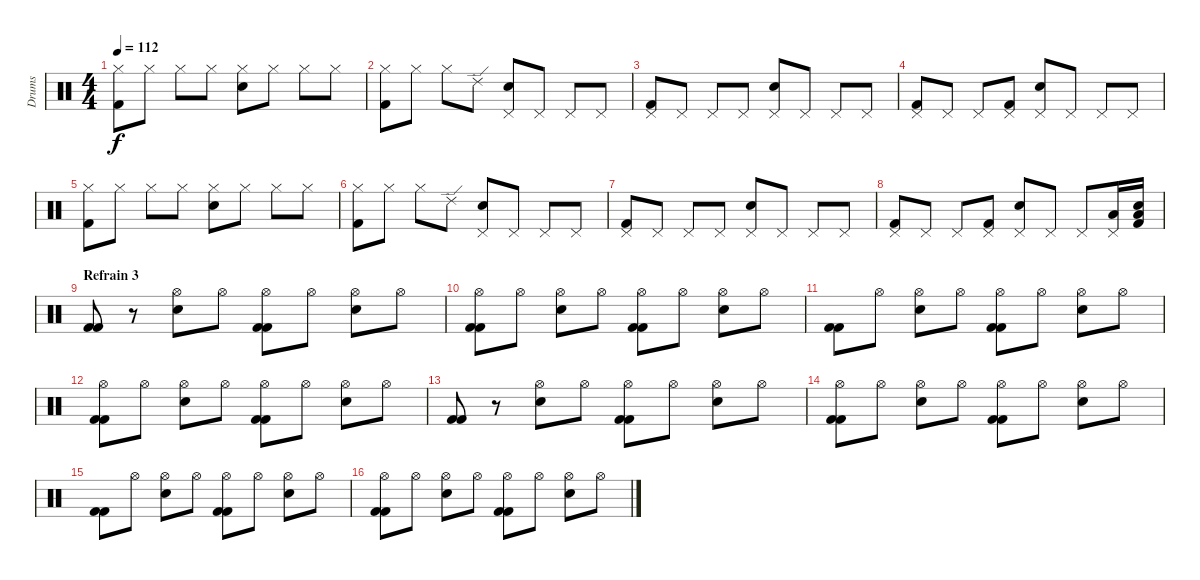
\track ("Drums" "Drums") {instrument percussion}
\staff {score}
\articulation defaults
\ts (4 4)
\tempo 112
\clef neutral
\ks c
("Hi-Hat (closed)" "Kick (hit) 2").8{dy f} "Hi-Hat (closed)".8 "Hi-Hat (closed)".8 "Hi-Hat (closed)".8 ("Hi-Hat (closed)" "Electric Snare (hit)").8 "Hi-Hat (closed)".8 "Hi-Hat (closed)".8 "Hi-Hat (closed)".8 |
("Hi-Hat (closed)" "Kick (hit) 2").8 "Hi-Hat (closed)".8 "Hi-Hat (closed)".8 "Ride (edge) 2".8 ("Pedal Hi-Hat (hit)" "Electric Snare (hit)").8 "Pedal Hi-Hat (hit)".8 "Pedal Hi-Hat (hit)".8 "Pedal Hi-Hat (hit)".8 |
("Pedal Hi-Hat (hit)" "Kick (hit) 2").8 "Pedal Hi-Hat (hit)".8 "Pedal Hi-Hat (hit)".8 "Pedal Hi-Hat (hit)".8 ("Pedal Hi-Hat (hit)" "Electric Snare (hit)").8 "Pedal Hi-Hat (hit)".8 "Pedal Hi-Hat (hit)".8 "Pedal Hi-Hat (hit)".8 |
("Pedal Hi-Hat (hit)" "Kick (hit) 2").8 "Pedal Hi-Hat (hit)".8 "Pedal Hi-Hat (hit)".8 ("Pedal Hi-Hat (hit)" "Kick (hit) 2").8 ("Pedal Hi-Hat (hit)" "Electric Snare (hit)").8 "Pedal Hi-Hat (hit)".8 "Pedal Hi-Hat (hit)".8 "Pedal Hi-Hat (hit)".8 |
("Hi-Hat (closed)" "Kick (hit) 2").8 "Hi-Hat (closed)".8 "Hi-Hat (closed)".8 "Hi-Hat (closed)".8 ("Hi-Hat (closed)" "Electric Snare (hit)").8 "Hi-Hat (closed)".8 "Hi-Hat (closed)".8 "Hi-Hat (closed)".8 |
("Hi-Hat (closed)" "Kick (hit) 2").8 "Hi-Hat (closed)".8 "Hi-Hat (closed)".8 "Ride (edge) 2".8 ("Pedal Hi-Hat (hit)" "Electric Snare (hit)").8 "Pedal Hi-Hat (hit)".8 "Pedal Hi-Hat (hit)".8 "Pedal Hi-Hat (hit)".8 |
("Pedal Hi-Hat (hit)" "Kick (hit) 2").8 "Pedal Hi-Hat (hit)".8 "Pedal Hi-Hat (hit)".8 "Pedal Hi-Hat (hit)".8 ("Pedal Hi-Hat (hit)" "Electric Snare (hit)").8 "Pedal Hi-Hat (hit)".8 "Pedal Hi-Hat (hit)".8 "Pedal Hi-Hat (hit)".8 |
("Pedal Hi-Hat (hit)" "Kick (hit) 2").8 "Pedal Hi-Hat (hit)".8 "Pedal Hi-Hat (hit)".8 ("Pedal Hi-Hat (hit)" "Kick (hit) 2").8 ("Pedal Hi-Hat (hit)" "Electric Snare (hit)").8 "Pedal Hi-Hat (hit)".8 "Pedal Hi-Hat (hit)".8 ("Pedal Hi-Hat (hit)" "Low Floor Tom (hit)").16 ("Electric Snare (hit)" "Low Floor Tom (hit)" "Kick (hit) 2").16 |
\section ("" "Refrain 3")
("Kick (hit) 2" "Kick (hit) 2").8 r.8 ("Hi-Hat (open)" "Electric Snare (hit)").8 "Hi-Hat (open)".8 ("Hi-Hat (open)" "Kick (hit) 2" "Kick (hit) 2").8 "Hi-Hat (open)".8 ("Hi-Hat (open)" "Electric Snare (hit)").8 "Hi-Hat (open)".8 |
("Hi-Hat (open)" "Kick (hit) 2" "Kick (hit) 2").8 "Hi-Hat (open)".8 ("Hi-Hat (open)" "Electric Snare (hit)").8 "Hi-Hat (open)".8 ("Hi-Hat (open)" "Kick (hit) 2" "Kick (hit) 2").8 "Hi-Hat (open)".8 ("Hi-Hat (open)" "Electric Snare (hit)").8 "Hi-Hat (open)".8 |
("Kick (hit) 2" "Kick (hit) 2").8 "Hi-Hat (open)".8 ("Hi-Hat (open)" "Electric Snare (hit)").8 "Hi-Hat (open)".8 ("Hi-Hat (open)" "Kick (hit) 2" "Kick (hit) 2").8 "Hi-Hat (open)".8 ("Hi-Hat (open)" "Electric Snare (hit)").8 "Hi-Hat (open)".8 |
("Hi-Hat (open)" "Kick (hit) 2" "Kick (hit) 2").8 "Hi-Hat (open)".8 ("Hi-Hat (open)" "Electric Snare (hit)").8 "Hi-Hat (open)".8 ("Hi-Hat (open)" "Kick (hit) 2" "Kick (hit) 2").8 "Hi-Hat (open)".8 ("Hi-Hat (open)" "Electric Snare (hit)").8 "Hi-Hat (open)".8 |
("Kick (hit) 2" "Kick (hit) 2").8 r.8 ("Hi-Hat (open)" "Electric Snare (hit)").8 "Hi-Hat (open)".8 ("Hi-Hat (open)" "Kick (hit) 2" "Kick (hit) 2").8 "Hi-Hat (open)".8 ("Hi-Hat (open)" "Electric Snare (hit)").8 "Hi-Hat (open)".8 |
("Hi-Hat (open)" "Kick (hit) 2" "Kick (hit) 2").8 "Hi-Hat (open)".8 ("Hi-Hat (open)" "Electric Snare (hit)").8 "Hi-Hat (open)".8 ("Hi-Hat (open)" "Kick (hit) 2" "Kick (hit) 2").8 "Hi-Hat (open)".8 ("Hi-Hat (open)" "Electric Snare (hit)").8 "Hi-Hat (open)".8 |
("Kick (hit) 2" "Kick (hit) 2").8 "Hi-Hat (open)".8 ("Hi-Hat (open)" "Electric Snare (hit)").8 "Hi-Hat (open)".8 ("Hi-Hat (open)" "Kick (hit) 2" "Kick (hit) 2").8 "Hi-Hat (open)".8 ("Hi-Hat (open)" "Electric Snare (hit)").8 "Hi-Hat (open)".8 |
("Hi-Hat (open)" "Kick (hit) 2" "Kick (hit) 2").8 "Hi-Hat (open)".8 ("Hi-Hat (open)" "Electric Snare (hit)").8 "Hi-Hat (open)".8 ("Hi-Hat (open)" "Kick (hit) 2" "Kick (hit) 2").8 "Hi-Hat (open)".8 ("Hi-Hat (open)" "Electric Snare (hit)").8 "Hi-Hat (open)".8
